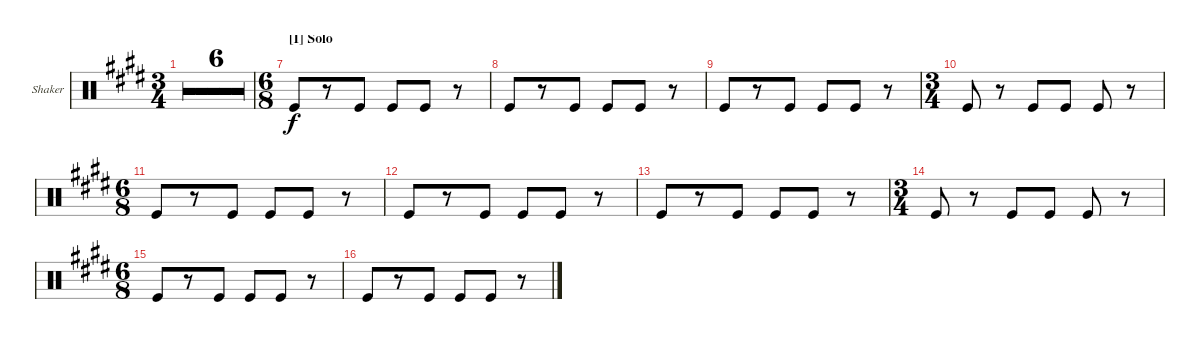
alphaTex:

\defaultSystemsLayout 4
\bracketExtendMode groupsimilarinstruments
\firstSystemTrackNameOrientation horizontal
\otherSystemsTrackNameOrientation horizontal
\track ("Shaker 2" "Shaker") {multiBarRest instrument percussion}
\staff {score}
\articulation defaults
\ts (3 4)
\tempo
165.176
\accidentals auto
\clef neutral
\ottava regular
\simile none
\ks e
r.2{d dy f} |
r.2{d} |
r.2{d} |
r.2{d} |
r.2{d} |
r.2{d} |
\ts (6 8)
\section ("I" "Solo")
"Kick (hit)".8 r.8 "Kick (hit)".8 "Kick (hit)".8 "Kick (hit)".8 r.8 |
"Kick (hit)".8 r.8 "Kick (hit)".8 "Kick (hit)".8 "Kick (hit)".8 r.8 |
"Kick (hit)".8 r.8 "Kick (hit)".8 "Kick (hit)".8 "Kick (hit)".8 r.8 |
\ts (3 4)
"Kick (hit)".8 r.8 "Kick (hit)".8 "Kick (hit)".8 "Kick (hit)".8 r.8 |
\ts (6 8)
"Kick (hit)".8 r.8 "Kick (hit)".8 "Kick (hit)".8 "Kick (hit)".8 r.8 |
"Kick (hit)".8 r.8 "Kick (hit)".8 "Kick (hit)".8 "Kick (hit)".8 r.8 |
"Kick (hit)".8 r.8 "Kick (hit)".8 "Kick (hit)".8 "Kick (hit)".8 r.8 |
\ts (3 4)
"Kick (hit)".8 r.8 "Kick (hit)".8 "Kick (hit)".8 "Kick (hit)".8 r.8 |
\ts (6 8)
"Kick (hit)".8 r.8 "Kick (hit)".8 "Kick (hit)".8 "Kick (hit)".8 r.8 |
"Kick (hit)".8 r.8 "Kick (hit)".8 "Kick (hit)".8 "Kick (hit)".8 r.8
